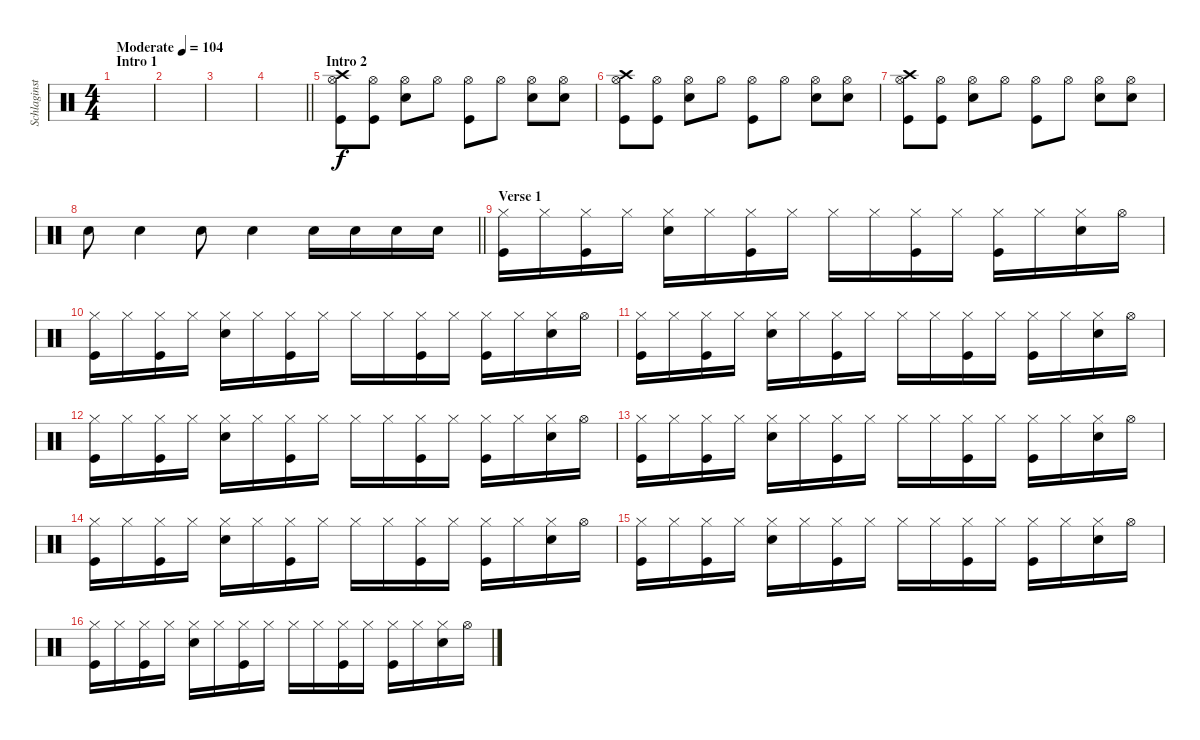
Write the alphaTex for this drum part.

\track ("Schlaginstrumente - Auswahl" "Schlaginst") {instrument percussion}
\staff {score}
\articulation defaults
\ts (4 4)
\section ("" "Intro 1")
\tempo (104 "Moderate")
\clef neutral
\ks c
|
|
|
\barLineRight lightlight
|
\section ("" "Intro 2")
("Hi-Hat (open)" "Kick (hit)" "Crash high (hit)").8 ("Hi-Hat (open)" "Kick (hit)").8 ("Hi-Hat (open)" "Snare (hit) 2").8 "Hi-Hat (open)".8 ("Hi-Hat (open)" "Kick (hit)").8 "Hi-Hat (open)".8 ("Hi-Hat (open)" "Snare (hit) 2").8 ("Hi-Hat (open)" "Snare (hit) 2").8 |
("Hi-Hat (open)" "Kick (hit)" "Crash high (hit)").8 ("Hi-Hat (open)" "Kick (hit)").8 ("Hi-Hat (open)" "Snare (hit) 2").8 "Hi-Hat (open)".8 ("Hi-Hat (open)" "Kick (hit)").8 "Hi-Hat (open)".8 ("Hi-Hat (open)" "Snare (hit) 2").8 ("Hi-Hat (open)" "Snare (hit) 2").8 |
("Hi-Hat (open)" "Kick (hit)" "Crash high (hit)").8 ("Hi-Hat (open)" "Kick (hit)").8 ("Hi-Hat (open)" "Snare (hit) 2").8 "Hi-Hat (open)".8 ("Hi-Hat (open)" "Kick (hit)").8 "Hi-Hat (open)".8 ("Hi-Hat (open)" "Snare (hit) 2").8 ("Hi-Hat (open)" "Snare (hit) 2").8 |
\barLineRight lightlight "Snare (hit) 2".8 "Snare (hit) 2".4 "Snare (hit) 2".8 "Snare (hit) 2".4 "Snare (hit) 2".16 "Snare (hit) 2".16 "Snare (hit) 2".16 "Snare (hit) 2".16
|
\section ("" "Verse 1")
("Hi-Hat (closed)" "Kick (hit)").16 "Hi-Hat (closed)".16 ("Hi-Hat (closed)" "Kick (hit)").16 "Hi-Hat (closed)".16 ("Hi-Hat (closed)" "Snare (hit) 2").16 "Hi-Hat (closed)".16 ("Hi-Hat (closed)" "Kick (hit)").16 "Hi-Hat (closed)".16 "Hi-Hat (closed)".16 "Hi-Hat (closed)".16 ("Hi-Hat (closed)" "Kick (hit)").16 "Hi-Hat (closed)".16 ("Hi-Hat (closed)" "Kick (hit)").16 "Hi-Hat (closed)".16 ("Hi-Hat (closed)" "Snare (hit) 2").16 "Hi-Hat (open)".16 |
("Hi-Hat (closed)" "Kick (hit)").16 "Hi-Hat (closed)".16 ("Hi-Hat (closed)" "Kick (hit)").16 "Hi-Hat (closed)".16 ("Hi-Hat (closed)" "Snare (hit) 2").16 "Hi-Hat (closed)".16 ("Hi-Hat (closed)" "Kick (hit)").16 "Hi-Hat (closed)".16 "Hi-Hat (closed)".16 "Hi-Hat (closed)".16 ("Hi-Hat (closed)" "Kick (hit)").16 "Hi-Hat (closed)".16 ("Hi-Hat (closed)" "Kick (hit)").16 "Hi-Hat (closed)".16 ("Hi-Hat (closed)" "Snare (hit) 2").16 "Hi-Hat (open)".16 |
("Hi-Hat (closed)" "Kick (hit)").16 "Hi-Hat (closed)".16 ("Hi-Hat (closed)" "Kick (hit)").16 "Hi-Hat (closed)".16 ("Hi-Hat (closed)" "Snare (hit) 2").16 "Hi-Hat (closed)".16 ("Hi-Hat (closed)" "Kick (hit)").16 "Hi-Hat (closed)".16 "Hi-Hat (closed)".16 "Hi-Hat (closed)".16 ("Hi-Hat (closed)" "Kick (hit)").16 "Hi-Hat (closed)".16 ("Hi-Hat (closed)" "Kick (hit)").16 "Hi-Hat (closed)".16 ("Hi-Hat (closed)" "Snare (hit) 2").16 "Hi-Hat (open)".16 |
("Hi-Hat (closed)" "Kick (hit)").16 "Hi-Hat (closed)".16 ("Hi-Hat (closed)" "Kick (hit)").16 "Hi-Hat (closed)".16 ("Hi-Hat (closed)" "Snare (hit) 2").16 "Hi-Hat (closed)".16 ("Hi-Hat (closed)" "Kick (hit)").16 "Hi-Hat (closed)".16 "Hi-Hat (closed)".16 "Hi-Hat (closed)".16 ("Hi-Hat (closed)" "Kick (hit)").16 "Hi-Hat (closed)".16 ("Hi-Hat (closed)" "Kick (hit)").16 "Hi-Hat (closed)".16 ("Hi-Hat (closed)" "Snare (hit) 2").16 "Hi-Hat (open)".16 |
("Hi-Hat (closed)" "Kick (hit)").16 "Hi-Hat (closed)".16 ("Hi-Hat (closed)" "Kick (hit)").16 "Hi-Hat (closed)".16 ("Hi-Hat (closed)" "Snare (hit) 2").16 "Hi-Hat (closed)".16 ("Hi-Hat (closed)" "Kick (hit)").16 "Hi-Hat (closed)".16 "Hi-Hat (closed)".16 "Hi-Hat (closed)".16 ("Hi-Hat (closed)" "Kick (hit)").16 "Hi-Hat (closed)".16 ("Hi-Hat (closed)" "Kick (hit)").16 "Hi-Hat (closed)".16 ("Hi-Hat (closed)" "Snare (hit) 2").16 "Hi-Hat (open)".16 |
("Hi-Hat (closed)" "Kick (hit)").16 "Hi-Hat (closed)".16 ("Hi-Hat (closed)" "Kick (hit)").16 "Hi-Hat (closed)".16 ("Hi-Hat (closed)" "Snare (hit) 2").16 "Hi-Hat (closed)".16 ("Hi-Hat (closed)" "Kick (hit)").16 "Hi-Hat (closed)".16 "Hi-Hat (closed)".16 "Hi-Hat (closed)".16 ("Hi-Hat (closed)" "Kick (hit)").16 "Hi-Hat (closed)".16 ("Hi-Hat (closed)" "Kick (hit)").16 "Hi-Hat (closed)".16 ("Hi-Hat (closed)" "Snare (hit) 2").16 "Hi-Hat (open)".16 |
("Hi-Hat (closed)" "Kick (hit)").16 "Hi-Hat (closed)".16 ("Hi-Hat (closed)" "Kick (hit)").16 "Hi-Hat (closed)".16 ("Hi-Hat (closed)" "Snare (hit) 2").16 "Hi-Hat (closed)".16 ("Hi-Hat (closed)" "Kick (hit)").16 "Hi-Hat (closed)".16 "Hi-Hat (closed)".16 "Hi-Hat (closed)".16 ("Hi-Hat (closed)" "Kick (hit)").16 "Hi-Hat (closed)".16 ("Hi-Hat (closed)" "Kick (hit)").16 "Hi-Hat (closed)".16 ("Hi-Hat (closed)" "Snare (hit) 2").16 "Hi-Hat (open)".16 |
("Hi-Hat (closed)" "Kick (hit)").16 "Hi-Hat (closed)".16 ("Hi-Hat (closed)" "Kick (hit)").16 "Hi-Hat (closed)".16 ("Hi-Hat (closed)" "Snare (hit) 2").16 "Hi-Hat (closed)".16 ("Hi-Hat (closed)" "Kick (hit)").16 "Hi-Hat (closed)".16 "Hi-Hat (closed)".16 "Hi-Hat (closed)".16 ("Hi-Hat (closed)" "Kick (hit)").16 "Hi-Hat (closed)".16 ("Hi-Hat (closed)" "Kick (hit)").16 "Hi-Hat (closed)".16 ("Hi-Hat (closed)" "Snare (hit) 2").16 "Hi-Hat (open)".16
